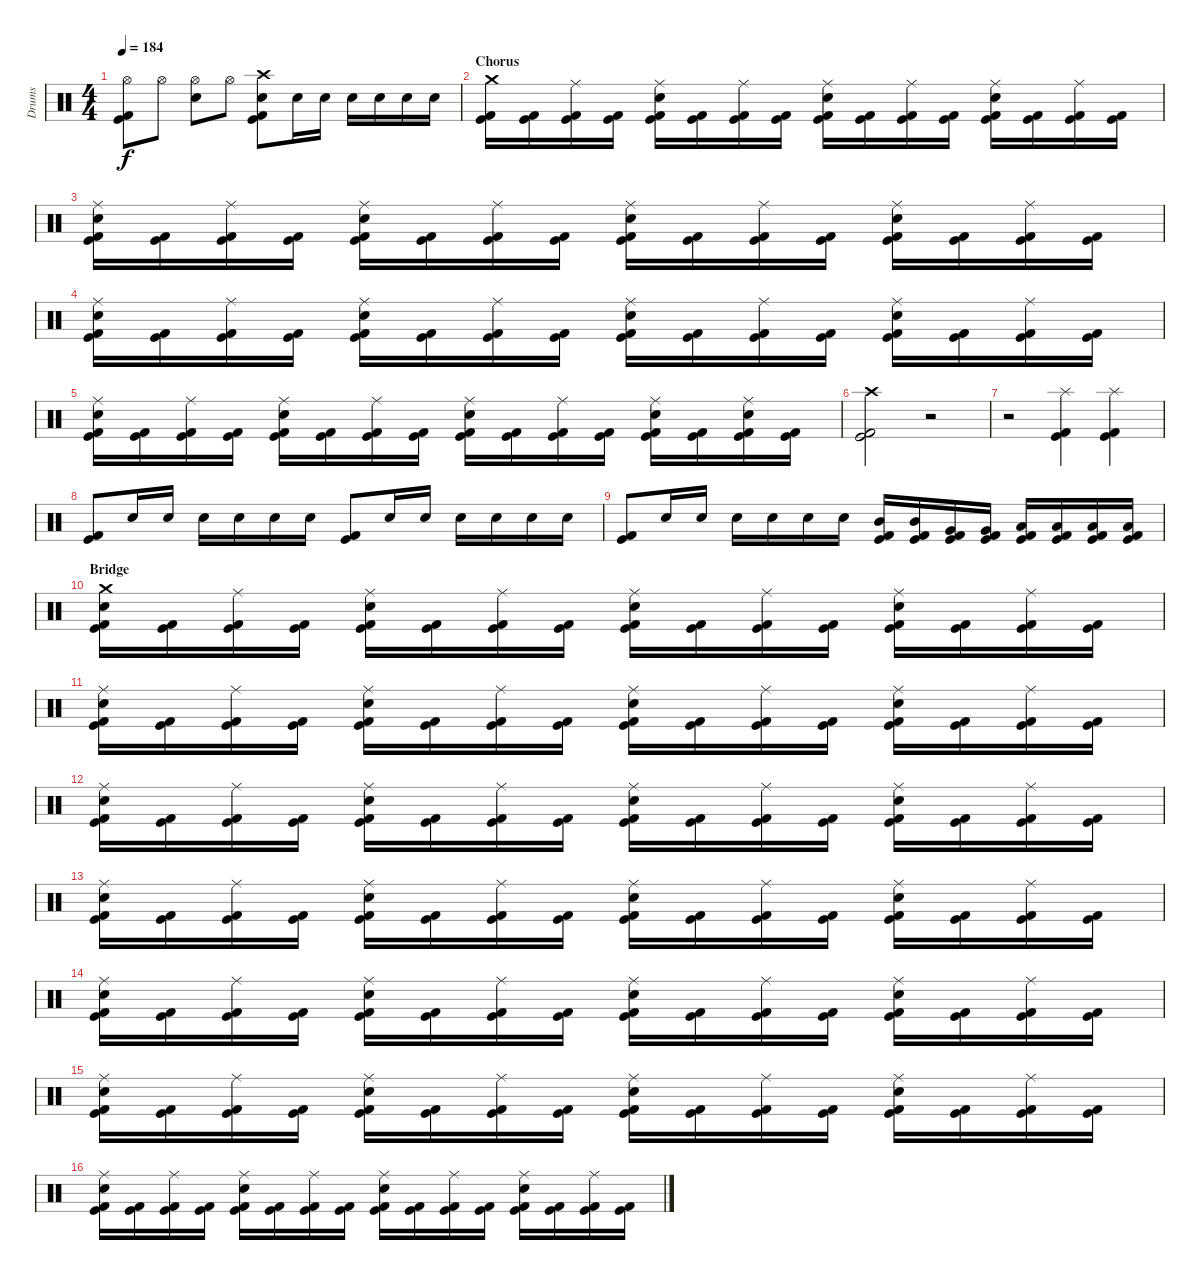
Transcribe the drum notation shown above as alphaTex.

\track ("Drums" "Drums") {instrument percussion}
\staff {score}
\articulation defaults
\ts (4 4)
\tempo 184
\clef neutral
\ks c
("Hi-Hat (open)" "Kick (hit)" "Kick (hit) 2").8{dy f} "Hi-Hat (open)".8 ("Hi-Hat (open)" "Electric Snare (hit)").8 "Hi-Hat (open)".8 ("Crash high (hit)" "Electric Snare (hit)" "Kick (hit)" "Kick (hit) 2").8 "Electric Snare (hit)".16 "Electric Snare (hit)".16 "Electric Snare (hit)".16 "Electric Snare (hit)".16 "Electric Snare (hit)".16 "Electric Snare (hit)".16 |
\section ("" "Chorus")
("Crash medium (hit)" "Kick (hit)" "Kick (hit) 2").16 ("Kick (hit)" "Kick (hit) 2").16 ("Ride (middle)" "Kick (hit)" "Kick (hit) 2").16 ("Kick (hit)" "Kick (hit) 2").16 ("Ride (middle)" "Electric Snare (hit)" "Kick (hit)" "Kick (hit) 2").16 ("Kick (hit)" "Kick (hit) 2").16 ("Ride (middle)" "Kick (hit)" "Kick (hit) 2").16 ("Kick (hit)" "Kick (hit) 2").16 ("Ride (middle)" "Electric Snare (hit)" "Kick (hit)" "Kick (hit) 2").16 ("Kick (hit)" "Kick (hit) 2").16 ("Ride (middle)" "Kick (hit)" "Kick (hit) 2").16 ("Kick (hit)" "Kick (hit) 2").16 ("Ride (middle)" "Electric Snare (hit)" "Kick (hit)" "Kick (hit) 2").16 ("Kick (hit)" "Kick (hit) 2").16 ("Ride (middle)" "Kick (hit)" "Kick (hit) 2").16 ("Kick (hit)" "Kick (hit) 2").16 |
("Ride (middle)" "Electric Snare (hit)" "Kick (hit)" "Kick (hit) 2").16 ("Kick (hit)" "Kick (hit) 2").16 ("Ride (middle)" "Kick (hit)" "Kick (hit) 2").16 ("Kick (hit)" "Kick (hit) 2").16 ("Ride (middle)" "Electric Snare (hit)" "Kick (hit)" "Kick (hit) 2").16 ("Kick (hit)" "Kick (hit) 2").16 ("Ride (middle)" "Kick (hit)" "Kick (hit) 2").16 ("Kick (hit)" "Kick (hit) 2").16 ("Ride (middle)" "Electric Snare (hit)" "Kick (hit)" "Kick (hit) 2").16 ("Kick (hit)" "Kick (hit) 2").16 ("Ride (middle)" "Kick (hit)" "Kick (hit) 2").16 ("Kick (hit)" "Kick (hit) 2").16 ("Ride (middle)" "Electric Snare (hit)" "Kick (hit)" "Kick (hit) 2").16 ("Kick (hit)" "Kick (hit) 2").16 ("Ride (middle)" "Kick (hit)" "Kick (hit) 2").16 ("Kick (hit)" "Kick (hit) 2").16 |
("Ride (middle)" "Electric Snare (hit)" "Kick (hit)" "Kick (hit) 2").16 ("Kick (hit)" "Kick (hit) 2").16 ("Ride (middle)" "Kick (hit)" "Kick (hit) 2").16 ("Kick (hit)" "Kick (hit) 2").16 ("Ride (middle)" "Electric Snare (hit)" "Kick (hit)" "Kick (hit) 2").16 ("Kick (hit)" "Kick (hit) 2").16 ("Ride (middle)" "Kick (hit)" "Kick (hit) 2").16 ("Kick (hit)" "Kick (hit) 2").16 ("Ride (middle)" "Electric Snare (hit)" "Kick (hit)" "Kick (hit) 2").16 ("Kick (hit)" "Kick (hit) 2").16 ("Ride (middle)" "Kick (hit)" "Kick (hit) 2").16 ("Kick (hit)" "Kick (hit) 2").16 ("Ride (middle)" "Electric Snare (hit)" "Kick (hit)" "Kick (hit) 2").16 ("Kick (hit)" "Kick (hit) 2").16 ("Ride (middle)" "Kick (hit)" "Kick (hit) 2").16 ("Kick (hit)" "Kick (hit) 2").16 |
("Ride (middle)" "Electric Snare (hit)" "Kick (hit)" "Kick (hit) 2").16 ("Kick (hit)" "Kick (hit) 2").16 ("Ride (middle)" "Kick (hit)" "Kick (hit) 2").16 ("Kick (hit)" "Kick (hit) 2").16 ("Ride (middle)" "Electric Snare (hit)" "Kick (hit)" "Kick (hit) 2").16 ("Kick (hit)" "Kick (hit) 2").16 ("Ride (middle)" "Kick (hit)" "Kick (hit) 2").16 ("Kick (hit)" "Kick (hit) 2").16 ("Ride (middle)" "Electric Snare (hit)" "Kick (hit)" "Kick (hit) 2").16 ("Kick (hit)" "Kick (hit) 2").16 ("Ride (middle)" "Kick (hit)" "Kick (hit) 2").16 ("Kick (hit)" "Kick (hit) 2").16 ("Ride (middle)" "Electric Snare (hit)" "Kick (hit)" "Kick (hit) 2").16 ("Kick (hit)" "Kick (hit) 2").16 ("Ride (middle)" "Electric Snare (hit)" "Kick (hit)" "Kick (hit) 2").16 ("Kick (hit)" "Kick (hit) 2").16 |
("Crash high (hit)" "Kick (hit)" "Kick (hit) 2").2 r.2 |
r.2 ("Splash (hit)" "Kick (hit)" "Kick (hit) 2").4 ("Splash (hit)" "Kick (hit)" "Kick (hit) 2").4 |
("Kick (hit)" "Kick (hit) 2").8 "Electric Snare (hit)".16 "Electric Snare (hit)".16 "Electric Snare (hit)".16 "Electric Snare (hit)".16 "Electric Snare (hit)".16 "Electric Snare (hit)".16 ("Kick (hit)" "Kick (hit) 2").8 "Electric Snare (hit)".16 "Electric Snare (hit)".16 "Electric Snare (hit)".16 "Electric Snare (hit)".16 "Electric Snare (hit)".16 "Electric Snare (hit)".16 |
("Kick (hit)" "Kick (hit) 2").8 "Electric Snare (hit)".16 "Electric Snare (hit)".16 "Electric Snare (hit)".16 "Electric Snare (hit)".16 "Electric Snare (hit)".16 "Electric Snare (hit)".16 ("Mid Tom (hit)" "Kick (hit)" "Kick (hit) 2").16 ("Mid Tom (hit)" "Kick (hit)" "Kick (hit) 2").16 ("Very Low Tom (hit)" "Kick (hit)" "Kick (hit) 2").16 ("Very Low Tom (hit)" "Kick (hit)" "Kick (hit) 2").16 ("Low Tom (hit)" "Kick (hit)" "Kick (hit) 2").16 ("Low Tom (hit)" "Kick (hit)" "Kick (hit) 2").16 ("Low Floor Tom (hit)" "Kick (hit)" "Kick (hit) 2").16 ("Low Floor Tom (hit)" "Kick (hit)" "Kick (hit) 2").16 |
\section ("" "Bridge")
("Crash medium (hit)" "Electric Snare (hit)" "Kick (hit)" "Kick (hit) 2").16 ("Kick (hit)" "Kick (hit) 2").16 ("Ride (middle)" "Kick (hit)" "Kick (hit) 2").16 ("Kick (hit)" "Kick (hit) 2").16 ("Ride (middle)" "Electric Snare (hit)" "Kick (hit)" "Kick (hit) 2").16 ("Kick (hit)" "Kick (hit) 2").16 ("Ride (middle)" "Kick (hit)" "Kick (hit) 2").16 ("Kick (hit)" "Kick (hit) 2").16 ("Ride (middle)" "Electric Snare (hit)" "Kick (hit)" "Kick (hit) 2").16 ("Kick (hit)" "Kick (hit) 2").16 ("Ride (middle)" "Kick (hit)" "Kick (hit) 2").16 ("Kick (hit)" "Kick (hit) 2").16 ("Ride (middle)" "Electric Snare (hit)" "Kick (hit)" "Kick (hit) 2").16 ("Kick (hit)" "Kick (hit) 2").16 ("Ride (middle)" "Kick (hit)" "Kick (hit) 2").16 ("Kick (hit)" "Kick (hit) 2").16 |
("Ride (middle)" "Electric Snare (hit)" "Kick (hit)" "Kick (hit) 2").16 ("Kick (hit)" "Kick (hit) 2").16 ("Ride (middle)" "Kick (hit)" "Kick (hit) 2").16 ("Kick (hit)" "Kick (hit) 2").16 ("Ride (middle)" "Electric Snare (hit)" "Kick (hit)" "Kick (hit) 2").16 ("Kick (hit)" "Kick (hit) 2").16 ("Ride (middle)" "Kick (hit)" "Kick (hit) 2").16 ("Kick (hit)" "Kick (hit) 2").16 ("Ride (middle)" "Electric Snare (hit)" "Kick (hit)" "Kick (hit) 2").16 ("Kick (hit)" "Kick (hit) 2").16 ("Ride (middle)" "Kick (hit)" "Kick (hit) 2").16 ("Kick (hit)" "Kick (hit) 2").16 ("Ride (middle)" "Electric Snare (hit)" "Kick (hit)" "Kick (hit) 2").16 ("Kick (hit)" "Kick (hit) 2").16 ("Ride (middle)" "Kick (hit)" "Kick (hit) 2").16 ("Kick (hit)" "Kick (hit) 2").16 |
("Ride (middle)" "Electric Snare (hit)" "Kick (hit)" "Kick (hit) 2").16 ("Kick (hit)" "Kick (hit) 2").16 ("Ride (middle)" "Kick (hit)" "Kick (hit) 2").16 ("Kick (hit)" "Kick (hit) 2").16 ("Ride (middle)" "Electric Snare (hit)" "Kick (hit)" "Kick (hit) 2").16 ("Kick (hit)" "Kick (hit) 2").16 ("Ride (middle)" "Kick (hit)" "Kick (hit) 2").16 ("Kick (hit)" "Kick (hit) 2").16 ("Ride (middle)" "Electric Snare (hit)" "Kick (hit)" "Kick (hit) 2").16 ("Kick (hit)" "Kick (hit) 2").16 ("Ride (middle)" "Kick (hit)" "Kick (hit) 2").16 ("Kick (hit)" "Kick (hit) 2").16 ("Ride (middle)" "Electric Snare (hit)" "Kick (hit)" "Kick (hit) 2").16 ("Kick (hit)" "Kick (hit) 2").16 ("Ride (middle)" "Kick (hit)" "Kick (hit) 2").16 ("Kick (hit)" "Kick (hit) 2").16 |
("Ride (middle)" "Electric Snare (hit)" "Kick (hit)" "Kick (hit) 2").16 ("Kick (hit)" "Kick (hit) 2").16 ("Ride (middle)" "Kick (hit)" "Kick (hit) 2").16 ("Kick (hit)" "Kick (hit) 2").16 ("Ride (middle)" "Electric Snare (hit)" "Kick (hit)" "Kick (hit) 2").16 ("Kick (hit)" "Kick (hit) 2").16 ("Ride (middle)" "Kick (hit)" "Kick (hit) 2").16 ("Kick (hit)" "Kick (hit) 2").16 ("Ride (middle)" "Electric Snare (hit)" "Kick (hit)" "Kick (hit) 2").16 ("Kick (hit)" "Kick (hit) 2").16 ("Ride (middle)" "Kick (hit)" "Kick (hit) 2").16 ("Kick (hit)" "Kick (hit) 2").16 ("Ride (middle)" "Electric Snare (hit)" "Kick (hit)" "Kick (hit) 2").16 ("Kick (hit)" "Kick (hit) 2").16 ("Ride (middle)" "Kick (hit)" "Kick (hit) 2").16 ("Kick (hit)" "Kick (hit) 2").16 |
("Ride (middle)" "Electric Snare (hit)" "Kick (hit)" "Kick (hit) 2").16 ("Kick (hit)" "Kick (hit) 2").16 ("Ride (middle)" "Kick (hit)" "Kick (hit) 2").16 ("Kick (hit)" "Kick (hit) 2").16 ("Ride (middle)" "Electric Snare (hit)" "Kick (hit)" "Kick (hit) 2").16 ("Kick (hit)" "Kick (hit) 2").16 ("Ride (middle)" "Kick (hit)" "Kick (hit) 2").16 ("Kick (hit)" "Kick (hit) 2").16 ("Ride (middle)" "Electric Snare (hit)" "Kick (hit)" "Kick (hit) 2").16 ("Kick (hit)" "Kick (hit) 2").16 ("Ride (middle)" "Kick (hit)" "Kick (hit) 2").16 ("Kick (hit)" "Kick (hit) 2").16 ("Ride (middle)" "Electric Snare (hit)" "Kick (hit)" "Kick (hit) 2").16 ("Kick (hit)" "Kick (hit) 2").16 ("Ride (middle)" "Kick (hit)" "Kick (hit) 2").16 ("Kick (hit)" "Kick (hit) 2").16 |
("Ride (middle)" "Electric Snare (hit)" "Kick (hit)" "Kick (hit) 2").16 ("Kick (hit)" "Kick (hit) 2").16 ("Ride (middle)" "Kick (hit)" "Kick (hit) 2").16 ("Kick (hit)" "Kick (hit) 2").16 ("Ride (middle)" "Electric Snare (hit)" "Kick (hit)" "Kick (hit) 2").16 ("Kick (hit)" "Kick (hit) 2").16 ("Ride (middle)" "Kick (hit)" "Kick (hit) 2").16 ("Kick (hit)" "Kick (hit) 2").16 ("Ride (middle)" "Electric Snare (hit)" "Kick (hit)" "Kick (hit) 2").16 ("Kick (hit)" "Kick (hit) 2").16 ("Ride (middle)" "Kick (hit)" "Kick (hit) 2").16 ("Kick (hit)" "Kick (hit) 2").16 ("Ride (middle)" "Electric Snare (hit)" "Kick (hit)" "Kick (hit) 2").16 ("Kick (hit)" "Kick (hit) 2").16 ("Ride (middle)" "Kick (hit)" "Kick (hit) 2").16 ("Kick (hit)" "Kick (hit) 2").16 |
("Ride (middle)" "Electric Snare (hit)" "Kick (hit)" "Kick (hit) 2").16 ("Kick (hit)" "Kick (hit) 2").16 ("Ride (middle)" "Kick (hit)" "Kick (hit) 2").16 ("Kick (hit)" "Kick (hit) 2").16 ("Ride (middle)" "Electric Snare (hit)" "Kick (hit)" "Kick (hit) 2").16 ("Kick (hit)" "Kick (hit) 2").16 ("Ride (middle)" "Kick (hit)" "Kick (hit) 2").16 ("Kick (hit)" "Kick (hit) 2").16 ("Ride (middle)" "Electric Snare (hit)" "Kick (hit)" "Kick (hit) 2").16 ("Kick (hit)" "Kick (hit) 2").16 ("Ride (middle)" "Kick (hit)" "Kick (hit) 2").16 ("Kick (hit)" "Kick (hit) 2").16 ("Ride (middle)" "Electric Snare (hit)" "Kick (hit)" "Kick (hit) 2").16 ("Kick (hit)" "Kick (hit) 2").16 ("Ride (middle)" "Kick (hit)" "Kick (hit) 2").16 ("Kick (hit)" "Kick (hit) 2").16
